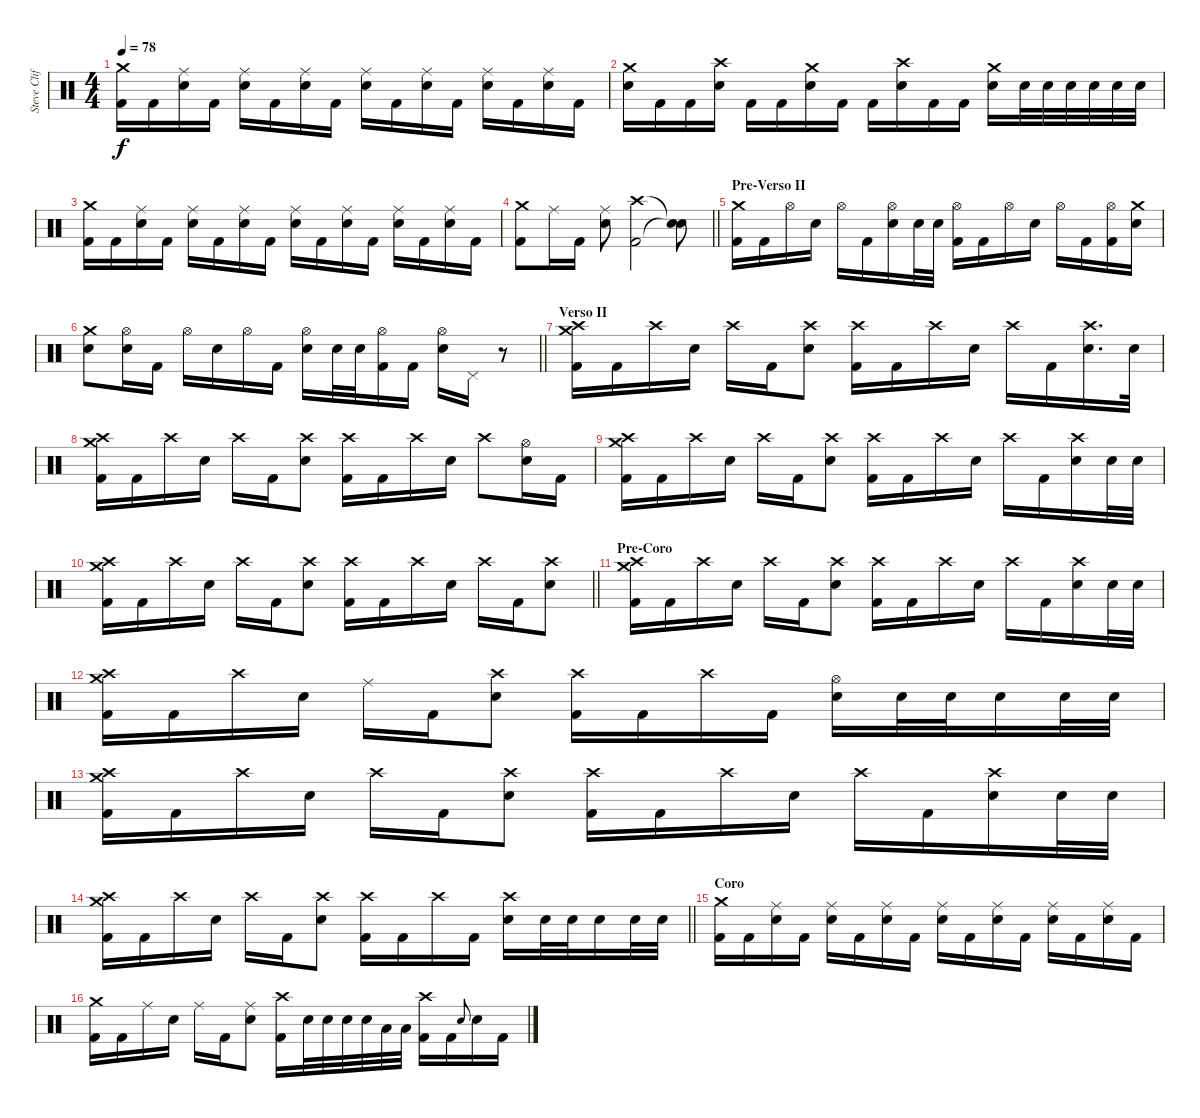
\track ("Steve Clifford" "Steve Clif") {instrument percussion}
\staff
\articulation defaults
\ts (4 4)
\tempo 78
\clef neutral
\ks c
("Crash medium (hit)" "Kick (hit) 2").16{dy f} "Kick (hit) 2".16 ("Ride (middle)" "Electric Snare (hit)").16 "Kick (hit) 2".16 ("Ride (middle)" "Electric Snare (hit)").16 "Kick (hit) 2".16 ("Ride (middle)" "Electric Snare (hit)").16 "Kick (hit) 2".16 ("Ride (middle)" "Electric Snare (hit)").16 "Kick (hit) 2".16 ("Ride (middle)" "Electric Snare (hit)").16 "Kick (hit) 2".16 ("Ride (middle)" "Electric Snare (hit)").16 "Kick (hit) 2".16 ("Ride (middle)" "Electric Snare (hit)").16 "Kick (hit) 2".16 |
("Crash medium (hit)" "Electric Snare (hit)").16 "Kick (hit) 2".16 "Kick (hit) 2".16 ("Crash high (hit)" "Electric Snare (hit)").16 "Kick (hit) 2".16 "Kick (hit) 2".16 ("Crash medium (hit)" "Electric Snare (hit)").16 "Kick (hit) 2".16 "Kick (hit) 2".16 ("Crash high (hit)" "Electric Snare (hit)").16 "Kick (hit) 2".16 "Kick (hit) 2".16 ("Crash medium (hit)" "Electric Snare (hit)").16 "Electric Snare (hit)".32 "Electric Snare (hit)".32 "Electric Snare (hit)".32 "Electric Snare (hit)".32 "Electric Snare (hit)".32 "Electric Snare (hit)".32 |
("Crash medium (hit)" "Kick (hit) 2").16 "Kick (hit) 2".16 ("Ride (middle)" "Electric Snare (hit)").16 "Kick (hit) 2".16 ("Ride (middle)" "Electric Snare (hit)").16 "Kick (hit) 2".16 ("Ride (middle)" "Electric Snare (hit)").16 "Kick (hit) 2".16 ("Ride (middle)" "Electric Snare (hit)").16 "Kick (hit) 2".16 ("Ride (middle)" "Electric Snare (hit)").16 "Kick (hit) 2".16 ("Ride (middle)" "Electric Snare (hit)").16 "Kick (hit) 2".16 ("Ride (middle)" "Electric Snare (hit)").16 "Kick (hit) 2".16 |
\barLineRight lightlight
("Crash medium (hit)" "Kick (hit) 2").8 "Ride (middle)".16 "Kick (hit) 2".16 ("Ride (middle)" "Electric Snare (hit)").8 ("Crash high (hit)" "Kick (hit) 2").2 ("Snare (hit)"{t} "Snare (hit)"{t}).8 |
\section ("" "Pre-Verso II")
("Crash medium (hit)" "Kick (hit) 2").16 "Kick (hit) 2".16 "Hi-Hat (open)".16 "Electric Snare (hit)".16 "Hi-Hat (open)".16 "Kick (hit) 2".16 ("Hi-Hat (open)" "Electric Snare (hit)").16 "Electric Snare (hit)".32 "Electric Snare (hit)".32 ("Hi-Hat (open)" "Kick (hit) 2").16 "Kick (hit) 2".16 "Hi-Hat (open)".16 "Electric Snare (hit)".16 "Hi-Hat (open)".16 "Kick (hit) 2".16 ("Hi-Hat (open)" "Kick (hit) 2").16 ("Crash medium (hit)" "Electric Snare (hit)").16 |
\barLineRight lightlight
("Crash medium (hit)" "Electric Snare (hit)").8 ("Hi-Hat (open)" "Electric Snare (hit)").16 "Kick (hit) 2".16 "Hi-Hat (open)".16 "Electric Snare (hit)".16 "Hi-Hat (open)".16 "Kick (hit) 2".16 ("Hi-Hat (open)" "Electric Snare (hit)").16 "Electric Snare (hit)".32 "Electric Snare (hit)".32 ("Hi-Hat (open)" "Kick (hit) 2").16 "Kick (hit) 2".16 ("Hi-Hat (open)" "Electric Snare (hit)").16 "Pedal Hi-Hat (hit)".16 r.8 |
\section ("" "Verso II")
("Crash medium (hit)" "Crash high (hit)" "Kick (hit) 2").16 "Kick (hit) 2".16 "Crash high (hit)".16 "Electric Snare (hit)".16 "Crash high (hit)".16 "Kick (hit) 2".16 ("Crash high (hit)" "Electric Snare (hit)").8 ("Crash high (hit)" "Kick (hit) 2").16 "Kick (hit) 2".16 "Crash high (hit)".16 "Electric Snare (hit)".16 "Crash high (hit)".16 "Kick (hit) 2".16 ("Crash high (hit)" "Electric Snare (hit)").16{d} "Electric Snare (hit)".32 |
("Crash medium (hit)" "Crash high (hit)" "Kick (hit) 2").16 "Kick (hit) 2".16 "Crash high (hit)".16 "Electric Snare (hit)".16 "Crash high (hit)".16 "Kick (hit) 2".16 ("Crash high (hit)" "Electric Snare (hit)").8 ("Crash high (hit)" "Kick (hit) 2").16 "Kick (hit) 2".16 "Crash high (hit)".16 "Electric Snare (hit)".16 "Crash high (hit)".8 ("Hi-Hat (open)" "Electric Snare (hit)").16 "Kick (hit) 2".16 |
("Crash medium (hit)" "Crash high (hit)" "Kick (hit) 2").16 "Kick (hit) 2".16 "Crash high (hit)".16 "Electric Snare (hit)".16 "Crash high (hit)".16 "Kick (hit) 2".16 ("Crash high (hit)" "Electric Snare (hit)").8 ("Crash high (hit)" "Kick (hit) 2").16 "Kick (hit) 2".16 "Crash high (hit)".16 "Electric Snare (hit)".16 "Crash high (hit)".16 "Kick (hit) 2".16 ("Crash high (hit)" "Electric Snare (hit)").16 "Electric Snare (hit)".32 "Electric Snare (hit)".32 |
\barLineRight lightlight
("Crash medium (hit)" "Crash high (hit)" "Kick (hit) 2").16 "Kick (hit) 2".16 "Crash high (hit)".16 "Electric Snare (hit)".16 "Crash high (hit)".16 "Kick (hit) 2".16 ("Crash high (hit)" "Electric Snare (hit)").8 ("Crash high (hit)" "Kick (hit) 2").16 "Kick (hit) 2".16 "Crash high (hit)".16 "Electric Snare (hit)".16 "Crash high (hit)".16 "Kick (hit) 2".16 ("Crash high (hit)" "Electric Snare (hit)").8 |
\section ("" "Pre-Coro")
("Crash medium (hit)" "Crash high (hit)" "Kick (hit) 2").16 "Kick (hit) 2".16 "Crash high (hit)".16 "Electric Snare (hit)".16 "Crash high (hit)".16 "Kick (hit) 2".16 ("Crash high (hit)" "Electric Snare (hit)").8 ("Crash high (hit)" "Kick (hit) 2").16 "Kick (hit) 2".16 "Crash high (hit)".16 "Electric Snare (hit)".16 "Crash high (hit)".16 "Kick (hit) 2".16 ("Crash high (hit)" "Electric Snare (hit)").16 "Electric Snare (hit)".32 "Electric Snare (hit)".32 |
("Crash medium (hit)" "Crash high (hit)" "Kick (hit) 2").16 "Kick (hit) 2".16 "Crash high (hit)".16 "Electric Snare (hit)".16 "Ride (middle)".16 "Kick (hit) 2".16 ("Crash high (hit)" "Electric Snare (hit)").8 ("Crash high (hit)" "Kick (hit) 2").16 "Kick (hit) 2".16 "Crash high (hit)".16 "Kick (hit) 2".16 ("Hi-Hat (open)" "Electric Snare (hit)").16 "Electric Snare (hit)".32 "Electric Snare (hit)".32 "Electric Snare (hit)".16 "Electric Snare (hit)".32 "Electric Snare (hit)".32 |
("Crash medium (hit)" "Crash high (hit)" "Kick (hit) 2").16 "Kick (hit) 2".16 "Crash high (hit)".16 "Electric Snare (hit)".16 "Crash high (hit)".16 "Kick (hit) 2".16 ("Crash high (hit)" "Electric Snare (hit)").8 ("Crash high (hit)" "Kick (hit) 2").16 "Kick (hit) 2".16 "Crash high (hit)".16 "Electric Snare (hit)".16 "Crash high (hit)".16 "Kick (hit) 2".16 ("Crash high (hit)" "Electric Snare (hit)").16 "Electric Snare (hit)".32 "Electric Snare (hit)".32 |
\barLineRight lightlight
("Crash medium (hit)" "Crash high (hit)" "Kick (hit) 2").16 "Kick (hit) 2".16 "Crash high (hit)".16 "Electric Snare (hit)".16 "Crash high (hit)".16 "Kick (hit) 2".16 ("Crash high (hit)" "Electric Snare (hit)").8 ("Crash high (hit)" "Kick (hit) 2").16 "Kick (hit) 2".16 "Crash high (hit)".16 "Kick (hit) 2".16 ("Crash high (hit)" "Electric Snare (hit)").16 "Electric Snare (hit)".32 "Electric Snare (hit)".32 "Electric Snare (hit)".16 "Electric Snare (hit)".32 "Electric Snare (hit)".32 |
\section ("" "Coro")
("Crash medium (hit)" "Kick (hit) 2").16 "Kick (hit) 2".16 ("Ride (middle)" "Electric Snare (hit)").16 "Kick (hit) 2".16 ("Ride (middle)" "Electric Snare (hit)").16 "Kick (hit) 2".16 ("Ride (middle)" "Electric Snare (hit)").16 "Kick (hit) 2".16 ("Ride (middle)" "Electric Snare (hit)").16 "Kick (hit) 2".16 ("Ride (middle)" "Electric Snare (hit)").16 "Kick (hit) 2".16 ("Ride (middle)" "Electric Snare (hit)").16 "Kick (hit) 2".16 ("Ride (middle)" "Electric Snare (hit)").16 "Kick (hit) 2".16 |
("Crash medium (hit)" "Kick (hit) 2").16 "Kick (hit) 2".16 "Ride (middle)".16 "Electric Snare (hit)".16 "Ride (middle)".16 "Kick (hit) 2".16 ("Ride (middle)" "Electric Snare (hit)").8 ("Crash high (hit)" "Kick (hit) 2").16 "Electric Snare (hit)".32 "Electric Snare (hit)".32 "Electric Snare (hit)".32 "Electric Snare (hit)".32 "Low Tom (hit)".32 "Low Tom (hit)".32 ("Crash high (hit)" "Kick (hit) 2").16 "Kick (hit) 2".16 "Electric Snare (hit)".8{gr onbeat} "Electric Snare (hit)".16 "Kick (hit) 2".16
